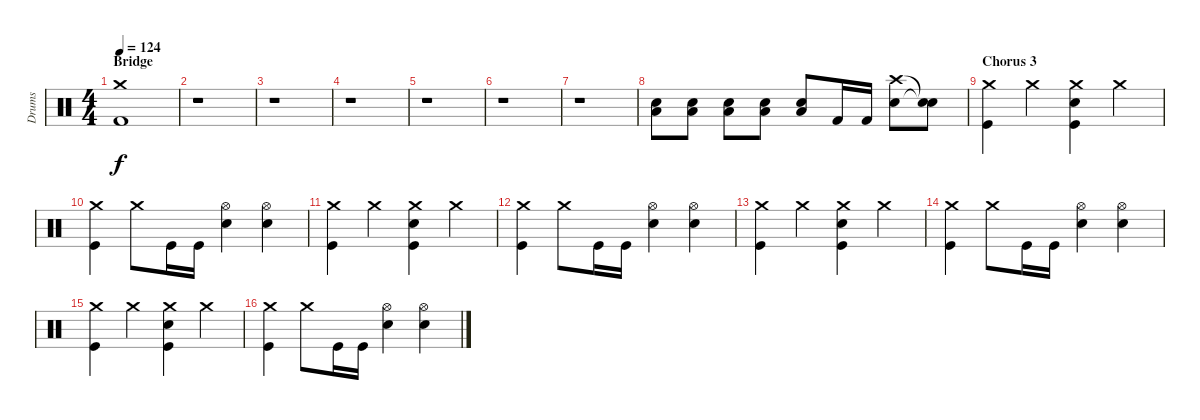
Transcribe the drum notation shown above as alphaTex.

\track ("Drums" "Drums") {instrument percussion}
\staff {score}
\articulation defaults
\ts (4 4)
\section ("" "Bridge")
\tempo 124
\clef neutral
\ks c
("Crash medium (hit)" "Kick (hit) 2").1{dy f} |
r.1 |
r.1 |
r.1 |
r.1 |
r.1 |
r.1 |
("Low Floor Tom (hit)" "Electric Snare (hit)").8 ("Low Floor Tom (hit)" "Electric Snare (hit)").8 ("Low Floor Tom (hit)" "Electric Snare (hit)").8 ("Low Floor Tom (hit)" "Electric Snare (hit)").8 ("Low Floor Tom (hit)" "Electric Snare (hit)").8 "Kick (hit) 2".16 "Kick (hit) 2".16 ("Crash high (hit)" "Electric Snare (hit)").8 ("Snare (hit)"{t} "Snare (hit)"{t}).8 |
\section ("" "Chorus 3")
("Crash medium (hit)" "Kick (hit)").4 "Crash medium (hit)".4 ("Kick (hit)" "Crash medium (hit)" "Electric Snare (hit)").4 "Crash medium (hit)".4 |
("Crash medium (hit)" "Kick (hit)").4 "Crash medium (hit)".8 "Kick (hit)".16 "Kick (hit)".16 ("Hi-Hat (open)" "Electric Snare (hit)").4 ("Hi-Hat (open)" "Electric Snare (hit)").4 |
("Crash medium (hit)" "Kick (hit)").4 "Crash medium (hit)".4 ("Kick (hit)" "Crash medium (hit)" "Electric Snare (hit)").4 "Crash medium (hit)".4 |
("Crash medium (hit)" "Kick (hit)").4 "Crash medium (hit)".8 "Kick (hit)".16 "Kick (hit)".16 ("Hi-Hat (open)" "Electric Snare (hit)").4 ("Hi-Hat (open)" "Electric Snare (hit)").4 |
("Crash medium (hit)" "Kick (hit)").4 "Crash medium (hit)".4 ("Kick (hit)" "Crash medium (hit)" "Electric Snare (hit)").4 "Crash medium (hit)".4 |
("Crash medium (hit)" "Kick (hit)").4 "Crash medium (hit)".8 "Kick (hit)".16 "Kick (hit)".16 ("Hi-Hat (open)" "Electric Snare (hit)").4 ("Hi-Hat (open)" "Electric Snare (hit)").4 |
("Crash medium (hit)" "Kick (hit)").4 "Crash medium (hit)".4 ("Kick (hit)" "Crash medium (hit)" "Electric Snare (hit)").4 "Crash medium (hit)".4 |
("Crash medium (hit)" "Kick (hit)").4 "Crash medium (hit)".8 "Kick (hit)".16 "Kick (hit)".16 ("Hi-Hat (open)" "Electric Snare (hit)").4 ("Hi-Hat (open)" "Electric Snare (hit)").4
